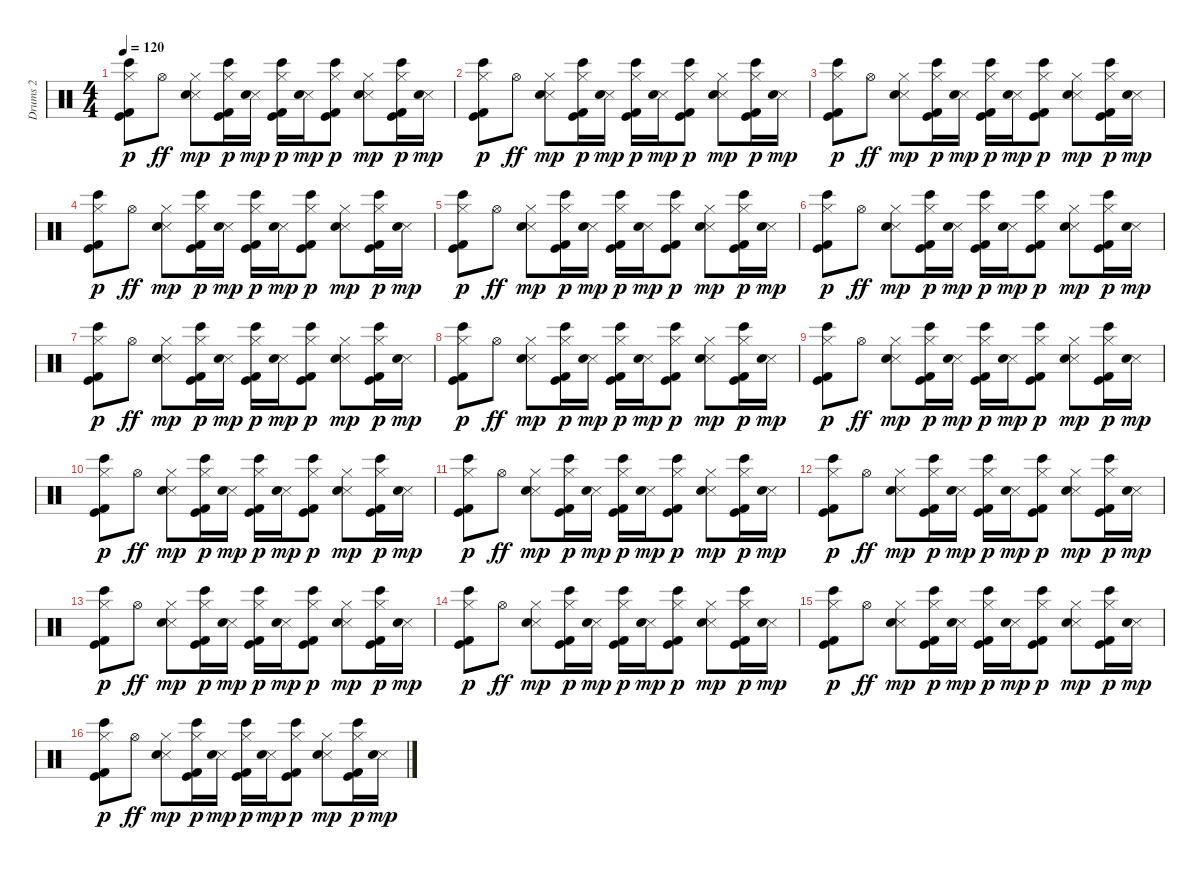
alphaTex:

\track ("Drums 2" "Drums 2") {instrument percussion}
\staff {score}
\articulation defaults
\ts (4 4)
\tempo 120
\clef neutral
\ks c
("Hi-Hat (closed)" "Bongo High (hit)" "Kick (hit) 2" "Kick (hit)").8{dy p} "Hi-Hat (open)".8{dy ff} ("Hi-Hat (closed)" "Metronome (hit)" "Electric Snare (hit)").8{dy mp} ("Hi-Hat (closed)" "Bongo High (hit)" "Kick (hit) 2" "Kick (hit)").16{dy p} ("Metronome (hit)" "Electric Snare (hit)").16{dy mp} ("Hi-Hat (closed)" "Bongo High (hit)" "Kick (hit) 2" "Kick (hit)").16{dy p} ("Metronome (hit)" "Electric Snare (hit)").16{dy mp} ("Hi-Hat (closed)" "Bongo High (hit)" "Kick (hit) 2" "Kick (hit)").8{dy p} ("Hi-Hat (closed)" "Metronome (hit)" "Electric Snare (hit)").8{dy mp} ("Hi-Hat (closed)" "Bongo High (hit)" "Kick (hit) 2" "Kick (hit)").16{dy p} ("Metronome (hit)" "Electric Snare (hit)").16{dy mp} |
("Hi-Hat (closed)" "Bongo High (hit)" "Kick (hit) 2" "Kick (hit)").8{dy p} "Hi-Hat (open)".8{dy ff} ("Hi-Hat (closed)" "Metronome (hit)" "Electric Snare (hit)").8{dy mp} ("Hi-Hat (closed)" "Bongo High (hit)" "Kick (hit) 2" "Kick (hit)").16{dy p} ("Metronome (hit)" "Electric Snare (hit)").16{dy mp} ("Hi-Hat (closed)" "Bongo High (hit)" "Kick (hit) 2" "Kick (hit)").16{dy p} ("Metronome (hit)" "Electric Snare (hit)").16{dy mp} ("Hi-Hat (closed)" "Bongo High (hit)" "Kick (hit) 2" "Kick (hit)").8{dy p} ("Hi-Hat (closed)" "Metronome (hit)" "Electric Snare (hit)").8{dy mp} ("Hi-Hat (closed)" "Bongo High (hit)" "Kick (hit) 2" "Kick (hit)").16{dy p} ("Metronome (hit)" "Electric Snare (hit)").16{dy mp} |
("Hi-Hat (closed)" "Bongo High (hit)" "Kick (hit) 2" "Kick (hit)").8{dy p} "Hi-Hat (open)".8{dy ff} ("Hi-Hat (closed)" "Metronome (hit)" "Electric Snare (hit)").8{dy mp} ("Hi-Hat (closed)" "Bongo High (hit)" "Kick (hit) 2" "Kick (hit)").16{dy p} ("Metronome (hit)" "Electric Snare (hit)").16{dy mp} ("Hi-Hat (closed)" "Bongo High (hit)" "Kick (hit) 2" "Kick (hit)").16{dy p} ("Metronome (hit)" "Electric Snare (hit)").16{dy mp} ("Hi-Hat (closed)" "Bongo High (hit)" "Kick (hit) 2" "Kick (hit)").8{dy p} ("Hi-Hat (closed)" "Metronome (hit)" "Electric Snare (hit)").8{dy mp} ("Hi-Hat (closed)" "Bongo High (hit)" "Kick (hit) 2" "Kick (hit)").16{dy p} ("Metronome (hit)" "Electric Snare (hit)").16{dy mp} |
("Hi-Hat (closed)" "Bongo High (hit)" "Kick (hit) 2" "Kick (hit)").8{dy p} "Hi-Hat (open)".8{dy ff} ("Hi-Hat (closed)" "Metronome (hit)" "Electric Snare (hit)").8{dy mp} ("Hi-Hat (closed)" "Bongo High (hit)" "Kick (hit) 2" "Kick (hit)").16{dy p} ("Metronome (hit)" "Electric Snare (hit)").16{dy mp} ("Hi-Hat (closed)" "Bongo High (hit)" "Kick (hit) 2" "Kick (hit)").16{dy p} ("Metronome (hit)" "Electric Snare (hit)").16{dy mp} ("Hi-Hat (closed)" "Bongo High (hit)" "Kick (hit) 2" "Kick (hit)").8{dy p} ("Hi-Hat (closed)" "Metronome (hit)" "Electric Snare (hit)").8{dy mp} ("Hi-Hat (closed)" "Bongo High (hit)" "Kick (hit) 2" "Kick (hit)").16{dy p} ("Metronome (hit)" "Electric Snare (hit)").16{dy mp} |
("Hi-Hat (closed)" "Bongo High (hit)" "Kick (hit) 2" "Kick (hit)").8{dy p} "Hi-Hat (open)".8{dy ff} ("Hi-Hat (closed)" "Metronome (hit)" "Electric Snare (hit)").8{dy mp} ("Hi-Hat (closed)" "Bongo High (hit)" "Kick (hit) 2" "Kick (hit)").16{dy p} ("Metronome (hit)" "Electric Snare (hit)").16{dy mp} ("Hi-Hat (closed)" "Bongo High (hit)" "Kick (hit) 2" "Kick (hit)").16{dy p} ("Metronome (hit)" "Electric Snare (hit)").16{dy mp} ("Hi-Hat (closed)" "Bongo High (hit)" "Kick (hit) 2" "Kick (hit)").8{dy p} ("Hi-Hat (closed)" "Metronome (hit)" "Electric Snare (hit)").8{dy mp} ("Hi-Hat (closed)" "Bongo High (hit)" "Kick (hit) 2" "Kick (hit)").16{dy p} ("Metronome (hit)" "Electric Snare (hit)").16{dy mp} |
("Hi-Hat (closed)" "Bongo High (hit)" "Kick (hit) 2" "Kick (hit)").8{dy p} "Hi-Hat (open)".8{dy ff} ("Hi-Hat (closed)" "Metronome (hit)" "Electric Snare (hit)").8{dy mp} ("Hi-Hat (closed)" "Bongo High (hit)" "Kick (hit) 2" "Kick (hit)").16{dy p} ("Metronome (hit)" "Electric Snare (hit)").16{dy mp} ("Hi-Hat (closed)" "Bongo High (hit)" "Kick (hit) 2" "Kick (hit)").16{dy p} ("Metronome (hit)" "Electric Snare (hit)").16{dy mp} ("Hi-Hat (closed)" "Bongo High (hit)" "Kick (hit) 2" "Kick (hit)").8{dy p} ("Hi-Hat (closed)" "Metronome (hit)" "Electric Snare (hit)").8{dy mp} ("Hi-Hat (closed)" "Bongo High (hit)" "Kick (hit) 2" "Kick (hit)").16{dy p} ("Metronome (hit)" "Electric Snare (hit)").16{dy mp} |
("Hi-Hat (closed)" "Bongo High (hit)" "Kick (hit) 2" "Kick (hit)").8{dy p} "Hi-Hat (open)".8{dy ff} ("Hi-Hat (closed)" "Metronome (hit)" "Electric Snare (hit)").8{dy mp} ("Hi-Hat (closed)" "Bongo High (hit)" "Kick (hit) 2" "Kick (hit)").16{dy p} ("Metronome (hit)" "Electric Snare (hit)").16{dy mp} ("Hi-Hat (closed)" "Bongo High (hit)" "Kick (hit) 2" "Kick (hit)").16{dy p} ("Metronome (hit)" "Electric Snare (hit)").16{dy mp} ("Hi-Hat (closed)" "Bongo High (hit)" "Kick (hit) 2" "Kick (hit)").8{dy p} ("Hi-Hat (closed)" "Metronome (hit)" "Electric Snare (hit)").8{dy mp} ("Hi-Hat (closed)" "Bongo High (hit)" "Kick (hit) 2" "Kick (hit)").16{dy p} ("Metronome (hit)" "Electric Snare (hit)").16{dy mp} |
("Hi-Hat (closed)" "Bongo High (hit)" "Kick (hit) 2" "Kick (hit)").8{dy p} "Hi-Hat (open)".8{dy ff} ("Hi-Hat (closed)" "Metronome (hit)" "Electric Snare (hit)").8{dy mp} ("Hi-Hat (closed)" "Bongo High (hit)" "Kick (hit) 2" "Kick (hit)").16{dy p} ("Metronome (hit)" "Electric Snare (hit)").16{dy mp} ("Hi-Hat (closed)" "Bongo High (hit)" "Kick (hit) 2" "Kick (hit)").16{dy p} ("Metronome (hit)" "Electric Snare (hit)").16{dy mp} ("Hi-Hat (closed)" "Bongo High (hit)" "Kick (hit) 2" "Kick (hit)").8{dy p} ("Hi-Hat (closed)" "Metronome (hit)" "Electric Snare (hit)").8{dy mp} ("Hi-Hat (closed)" "Bongo High (hit)" "Kick (hit) 2" "Kick (hit)").16{dy p} ("Metronome (hit)" "Electric Snare (hit)").16{dy mp} |
("Hi-Hat (closed)" "Bongo High (hit)" "Kick (hit) 2" "Kick (hit)").8{dy p} "Hi-Hat (open)".8{dy ff} ("Hi-Hat (closed)" "Metronome (hit)" "Electric Snare (hit)").8{dy mp} ("Hi-Hat (closed)" "Bongo High (hit)" "Kick (hit) 2" "Kick (hit)").16{dy p} ("Metronome (hit)" "Electric Snare (hit)").16{dy mp} ("Hi-Hat (closed)" "Bongo High (hit)" "Kick (hit) 2" "Kick (hit)").16{dy p} ("Metronome (hit)" "Electric Snare (hit)").16{dy mp} ("Hi-Hat (closed)" "Bongo High (hit)" "Kick (hit) 2" "Kick (hit)").8{dy p} ("Hi-Hat (closed)" "Metronome (hit)" "Electric Snare (hit)").8{dy mp} ("Hi-Hat (closed)" "Bongo High (hit)" "Kick (hit) 2" "Kick (hit)").16{dy p} ("Metronome (hit)" "Electric Snare (hit)").16{dy mp} |
("Hi-Hat (closed)" "Bongo High (hit)" "Kick (hit) 2" "Kick (hit)").8{dy p} "Hi-Hat (open)".8{dy ff} ("Hi-Hat (closed)" "Metronome (hit)" "Electric Snare (hit)").8{dy mp} ("Hi-Hat (closed)" "Bongo High (hit)" "Kick (hit) 2" "Kick (hit)").16{dy p} ("Metronome (hit)" "Electric Snare (hit)").16{dy mp} ("Hi-Hat (closed)" "Bongo High (hit)" "Kick (hit) 2" "Kick (hit)").16{dy p} ("Metronome (hit)" "Electric Snare (hit)").16{dy mp} ("Hi-Hat (closed)" "Bongo High (hit)" "Kick (hit) 2" "Kick (hit)").8{dy p} ("Hi-Hat (closed)" "Metronome (hit)" "Electric Snare (hit)").8{dy mp} ("Hi-Hat (closed)" "Bongo High (hit)" "Kick (hit) 2" "Kick (hit)").16{dy p} ("Metronome (hit)" "Electric Snare (hit)").16{dy mp} |
("Hi-Hat (closed)" "Bongo High (hit)" "Kick (hit) 2" "Kick (hit)").8{dy p} "Hi-Hat (open)".8{dy ff} ("Hi-Hat (closed)" "Metronome (hit)" "Electric Snare (hit)").8{dy mp} ("Hi-Hat (closed)" "Bongo High (hit)" "Kick (hit) 2" "Kick (hit)").16{dy p} ("Metronome (hit)" "Electric Snare (hit)").16{dy mp} ("Hi-Hat (closed)" "Bongo High (hit)" "Kick (hit) 2" "Kick (hit)").16{dy p} ("Metronome (hit)" "Electric Snare (hit)").16{dy mp} ("Hi-Hat (closed)" "Bongo High (hit)" "Kick (hit) 2" "Kick (hit)").8{dy p} ("Hi-Hat (closed)" "Metronome (hit)" "Electric Snare (hit)").8{dy mp} ("Hi-Hat (closed)" "Bongo High (hit)" "Kick (hit) 2" "Kick (hit)").16{dy p} ("Metronome (hit)" "Electric Snare (hit)").16{dy mp} |
("Hi-Hat (closed)" "Bongo High (hit)" "Kick (hit) 2" "Kick (hit)").8{dy p} "Hi-Hat (open)".8{dy ff} ("Hi-Hat (closed)" "Metronome (hit)" "Electric Snare (hit)").8{dy mp} ("Hi-Hat (closed)" "Bongo High (hit)" "Kick (hit) 2" "Kick (hit)").16{dy p} ("Metronome (hit)" "Electric Snare (hit)").16{dy mp} ("Hi-Hat (closed)" "Bongo High (hit)" "Kick (hit) 2" "Kick (hit)").16{dy p} ("Metronome (hit)" "Electric Snare (hit)").16{dy mp} ("Hi-Hat (closed)" "Bongo High (hit)" "Kick (hit) 2" "Kick (hit)").8{dy p} ("Hi-Hat (closed)" "Metronome (hit)" "Electric Snare (hit)").8{dy mp} ("Hi-Hat (closed)" "Bongo High (hit)" "Kick (hit) 2" "Kick (hit)").16{dy p} ("Metronome (hit)" "Electric Snare (hit)").16{dy mp} |
("Hi-Hat (closed)" "Bongo High (hit)" "Kick (hit) 2" "Kick (hit)").8{dy p} "Hi-Hat (open)".8{dy ff} ("Hi-Hat (closed)" "Metronome (hit)" "Electric Snare (hit)").8{dy mp} ("Hi-Hat (closed)" "Bongo High (hit)" "Kick (hit) 2" "Kick (hit)").16{dy p} ("Metronome (hit)" "Electric Snare (hit)").16{dy mp} ("Hi-Hat (closed)" "Bongo High (hit)" "Kick (hit) 2" "Kick (hit)").16{dy p} ("Metronome (hit)" "Electric Snare (hit)").16{dy mp} ("Hi-Hat (closed)" "Bongo High (hit)" "Kick (hit) 2" "Kick (hit)").8{dy p} ("Hi-Hat (closed)" "Metronome (hit)" "Electric Snare (hit)").8{dy mp} ("Hi-Hat (closed)" "Bongo High (hit)" "Kick (hit) 2" "Kick (hit)").16{dy p} ("Metronome (hit)" "Electric Snare (hit)").16{dy mp} |
("Hi-Hat (closed)" "Bongo High (hit)" "Kick (hit) 2" "Kick (hit)").8{dy p} "Hi-Hat (open)".8{dy ff} ("Hi-Hat (closed)" "Metronome (hit)" "Electric Snare (hit)").8{dy mp} ("Hi-Hat (closed)" "Bongo High (hit)" "Kick (hit) 2" "Kick (hit)").16{dy p} ("Metronome (hit)" "Electric Snare (hit)").16{dy mp} ("Hi-Hat (closed)" "Bongo High (hit)" "Kick (hit) 2" "Kick (hit)").16{dy p} ("Metronome (hit)" "Electric Snare (hit)").16{dy mp} ("Hi-Hat (closed)" "Bongo High (hit)" "Kick (hit) 2" "Kick (hit)").8{dy p} ("Hi-Hat (closed)" "Metronome (hit)" "Electric Snare (hit)").8{dy mp} ("Hi-Hat (closed)" "Bongo High (hit)" "Kick (hit) 2" "Kick (hit)").16{dy p} ("Metronome (hit)" "Electric Snare (hit)").16{dy mp} |
("Hi-Hat (closed)" "Bongo High (hit)" "Kick (hit) 2" "Kick (hit)").8{dy p} "Hi-Hat (open)".8{dy ff} ("Hi-Hat (closed)" "Metronome (hit)" "Electric Snare (hit)").8{dy mp} ("Hi-Hat (closed)" "Bongo High (hit)" "Kick (hit) 2" "Kick (hit)").16{dy p} ("Metronome (hit)" "Electric Snare (hit)").16{dy mp} ("Hi-Hat (closed)" "Bongo High (hit)" "Kick (hit) 2" "Kick (hit)").16{dy p} ("Metronome (hit)" "Electric Snare (hit)").16{dy mp} ("Hi-Hat (closed)" "Bongo High (hit)" "Kick (hit) 2" "Kick (hit)").8{dy p} ("Hi-Hat (closed)" "Metronome (hit)" "Electric Snare (hit)").8{dy mp} ("Hi-Hat (closed)" "Bongo High (hit)" "Kick (hit) 2" "Kick (hit)").16{dy p} ("Metronome (hit)" "Electric Snare (hit)").16{dy mp} |
("Hi-Hat (closed)" "Bongo High (hit)" "Kick (hit) 2" "Kick (hit)").8{dy p} "Hi-Hat (open)".8{dy ff} ("Hi-Hat (closed)" "Metronome (hit)" "Electric Snare (hit)").8{dy mp} ("Hi-Hat (closed)" "Bongo High (hit)" "Kick (hit) 2" "Kick (hit)").16{dy p} ("Metronome (hit)" "Electric Snare (hit)").16{dy mp} ("Hi-Hat (closed)" "Bongo High (hit)" "Kick (hit) 2" "Kick (hit)").16{dy p} ("Metronome (hit)" "Electric Snare (hit)").16{dy mp} ("Hi-Hat (closed)" "Bongo High (hit)" "Kick (hit) 2" "Kick (hit)").8{dy p} ("Hi-Hat (closed)" "Metronome (hit)" "Electric Snare (hit)").8{dy mp} ("Hi-Hat (closed)" "Bongo High (hit)" "Kick (hit) 2" "Kick (hit)").16{dy p} ("Metronome (hit)" "Electric Snare (hit)").16{dy mp}
